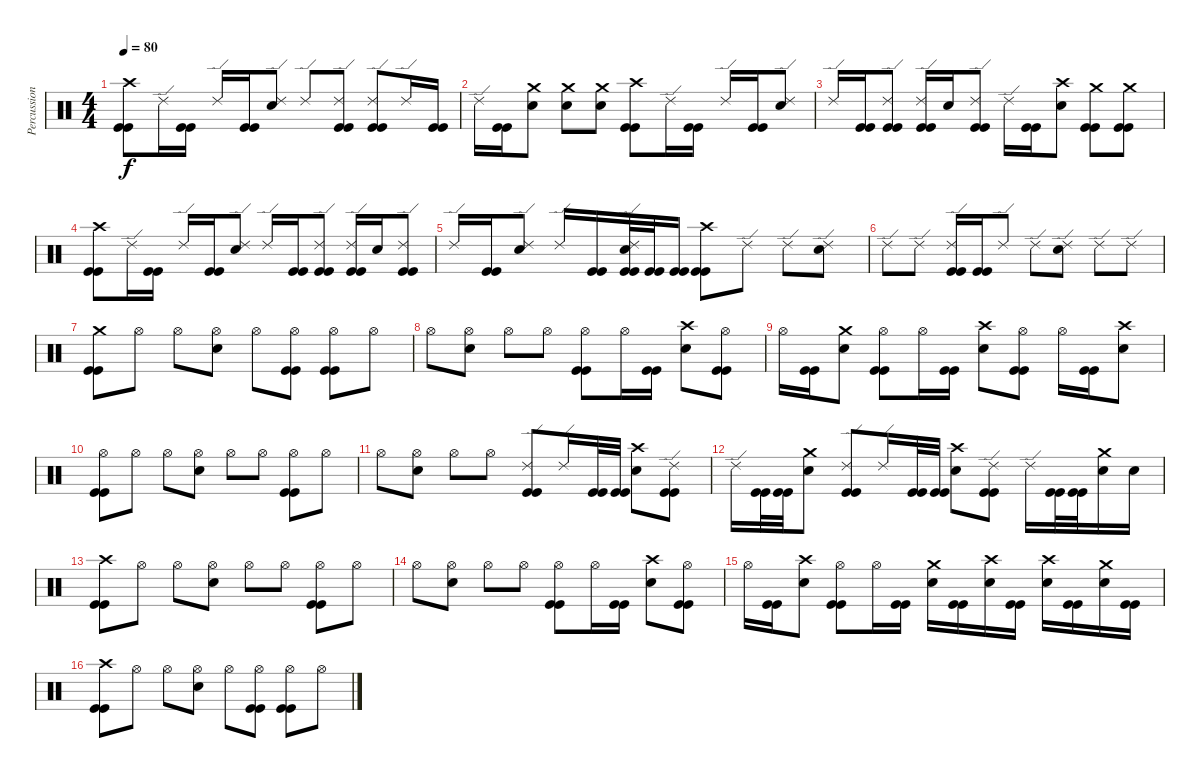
\track ("Percussions" "Percussion") {instrument percussion}
\staff {score}
\articulation defaults
\ts (4 4)
\tempo 80
\clef neutral
\ks c
("Kick (hit)" "Kick (hit)" "Crash high (hit)").8{dy f} "Ride (edge) 2".16 ("Kick (hit)" "Kick (hit)").16 "Ride (edge) 2".16 ("Kick (hit)" "Kick (hit)").16 ("Electric Snare (hit)" "Ride (edge) 2").8 "Ride (edge) 2".8 ("Kick (hit)" "Kick (hit)" "Ride (edge) 2").8 ("Kick (hit)" "Kick (hit)" "Ride (edge) 2").8 "Ride (edge) 2".16 ("Kick (hit)" "Kick (hit)").16 |
"Ride (edge) 2".16 ("Kick (hit)" "Kick (hit)").16 ("Electric Snare (hit)" "Crash medium (hit)").8 ("Electric Snare (hit)" "Crash medium (hit)").8 ("Electric Snare (hit)" "Crash medium (hit)").8 ("Kick (hit)" "Kick (hit)" "Crash high (hit)").8 "Ride (edge) 2".16 ("Kick (hit)" "Kick (hit)").16 "Ride (edge) 2".16 ("Kick (hit)" "Kick (hit)").16 ("Electric Snare (hit)" "Ride (edge) 2").8 |
"Ride (edge) 2".16 ("Kick (hit)" "Kick (hit)").16 ("Kick (hit)" "Kick (hit)" "Ride (edge) 2").8 ("Kick (hit)" "Kick (hit)" "Ride (edge) 2").16 "Electric Snare (hit)".16 ("Kick (hit)" "Kick (hit)" "Ride (edge) 2").8 "Ride (edge) 2".16 ("Kick (hit)" "Kick (hit)").16 ("Electric Snare (hit)" "Crash high (hit)").8 ("Kick (hit)" "Kick (hit)" "Crash medium (hit)").8 ("Kick (hit)" "Kick (hit)" "Crash medium (hit)").8 |
("Kick (hit)" "Kick (hit)" "Crash high (hit)").8 "Ride (edge) 2".16 ("Kick (hit)" "Kick (hit)").16 "Ride (edge) 2".16 ("Kick (hit)" "Kick (hit)").16 ("Electric Snare (hit)" "Ride (edge) 2").8 "Ride (edge) 2".16 ("Kick (hit)" "Kick (hit)").16 ("Kick (hit)" "Kick (hit)" "Ride (edge) 2").8 ("Kick (hit)" "Kick (hit)" "Ride (edge) 2").16 "Electric Snare (hit)".16 ("Kick (hit)" "Kick (hit)" "Ride (edge) 2").8 |
"Ride (edge) 2".16 ("Kick (hit)" "Kick (hit)").16 ("Electric Snare (hit)" "Ride (edge) 2").8 "Ride (edge) 2".16 ("Kick (hit)" "Kick (hit)").16 ("Kick (hit)" "Kick (hit)" "Electric Snare (hit)" "Ride (edge) 2").32 ("Kick (hit)" "Kick (hit)").32 ("Kick (hit)" "Kick (hit)").16 ("Kick (hit)" "Kick (hit)" "Crash high (hit)").8 "Ride (edge) 2".8 "Ride (edge) 2".8 ("Electric Snare (hit)" "Ride (edge) 2").8 |
"Ride (edge) 2".8 "Ride (edge) 2".8 ("Kick (hit)" "Kick (hit)" "Ride (edge) 2").16 ("Kick (hit)" "Kick (hit)").16 "Ride (edge) 2".8 "Ride (edge) 2".8 ("Electric Snare (hit)" "Ride (edge) 2").8 "Ride (edge) 2".8 "Ride (edge) 2".8 |
("Kick (hit)" "Kick (hit)" "Crash medium (hit)").8 "Hi-Hat (open)".8 "Hi-Hat (open)".8 ("Electric Snare (hit)" "Hi-Hat (open)").8 "Hi-Hat (open)".8 ("Kick (hit)" "Kick (hit)" "Hi-Hat (open)").8 ("Kick (hit)" "Kick (hit)" "Hi-Hat (open)").8 "Hi-Hat (open)".8 |
"Hi-Hat (open)".8 ("Electric Snare (hit)" "Hi-Hat (open)").8 "Hi-Hat (open)".8 "Hi-Hat (open)".8 ("Kick (hit)" "Kick (hit)" "Hi-Hat (open)").8 "Hi-Hat (open)".16 ("Kick (hit)" "Kick (hit)").16 ("Electric Snare (hit)" "Crash high (hit)").8 ("Kick (hit)" "Kick (hit)" "Hi-Hat (open)").8 |
"Hi-Hat (open)".16 ("Kick (hit)" "Kick (hit)").16 ("Electric Snare (hit)" "Crash medium (hit)").8 ("Kick (hit)" "Kick (hit)" "Hi-Hat (open)").8 "Hi-Hat (open)".16 ("Kick (hit)" "Kick (hit)").16 ("Electric Snare (hit)" "Crash high (hit)").8 ("Kick (hit)" "Kick (hit)" "Hi-Hat (open)").8 "Hi-Hat (open)".16 ("Kick (hit)" "Kick (hit)").16 ("Electric Snare (hit)" "Crash high (hit)").8 |
("Kick (hit)" "Kick (hit)" "Hi-Hat (open)").8 "Hi-Hat (open)".8 "Hi-Hat (open)".8 ("Electric Snare (hit)" "Hi-Hat (open)").8 "Hi-Hat (open)".8 "Hi-Hat (open)".8 ("Kick (hit)" "Kick (hit)" "Hi-Hat (open)").8 "Hi-Hat (open)".8 |
"Hi-Hat (open)".8 ("Electric Snare (hit)" "Hi-Hat (open)").8 "Hi-Hat (open)".8 "Hi-Hat (open)".8 ("Kick (hit)" "Kick (hit)" "Ride (edge) 2").8 "Ride (edge) 2".16 ("Kick (hit)" "Kick (hit)").32 ("Kick (hit)" "Kick (hit)").32 ("Electric Snare (hit)" "Crash high (hit)").8 ("Kick (hit)" "Kick (hit)" "Ride (edge) 2").8 |
"Ride (edge) 2".16 ("Kick (hit)" "Kick (hit)").32 ("Kick (hit)" "Kick (hit)").32 ("Electric Snare (hit)" "Crash medium (hit)").8 ("Kick (hit)" "Kick (hit)" "Ride (edge) 2").8 "Ride (edge) 2".16 ("Kick (hit)" "Kick (hit)").32 ("Kick (hit)" "Kick (hit)").32 ("Electric Snare (hit)" "Crash high (hit)").8 ("Kick (hit)" "Kick (hit)" "Ride (edge) 2").8 "Ride (edge) 2".16 ("Kick (hit)" "Kick (hit)").32 ("Kick (hit)" "Kick (hit)").32 ("Electric Snare (hit)" "Crash medium (hit)").16 "Electric Snare (hit)".16 |
("Kick (hit)" "Kick (hit)" "Crash high (hit)").8 "Hi-Hat (open)".8 "Hi-Hat (open)".8 ("Electric Snare (hit)" "Hi-Hat (open)").8 "Hi-Hat (open)".8 "Hi-Hat (open)".8 ("Kick (hit)" "Kick (hit)" "Hi-Hat (open)").8 "Hi-Hat (open)".8 |
"Hi-Hat (open)".8 ("Electric Snare (hit)" "Hi-Hat (open)").8 "Hi-Hat (open)".8 "Hi-Hat (open)".8 ("Kick (hit)" "Kick (hit)" "Hi-Hat (open)").8 "Hi-Hat (open)".16 ("Kick (hit)" "Kick (hit)").16 ("Electric Snare (hit)" "Crash high (hit)").8 ("Kick (hit)" "Kick (hit)" "Hi-Hat (open)").8 |
"Hi-Hat (open)".16 ("Kick (hit)" "Kick (hit)").16 ("Electric Snare (hit)" "Crash high (hit)").8 ("Kick (hit)" "Kick (hit)" "Hi-Hat (open)").8 "Hi-Hat (open)".16 ("Kick (hit)" "Kick (hit)").16 ("Electric Snare (hit)" "Crash medium (hit)").16 ("Kick (hit)" "Kick (hit)").16 ("Electric Snare (hit)" "Crash high (hit)").16 ("Kick (hit)" "Kick (hit)").16 ("Electric Snare (hit)" "Crash high (hit)").16 ("Kick (hit)" "Kick (hit)").16 ("Electric Snare (hit)" "Crash medium (hit)").16 ("Kick (hit)" "Kick (hit)").16 |
("Kick (hit)" "Kick (hit)" "Crash high (hit)").8 "Hi-Hat (open)".8 "Hi-Hat (open)".8 ("Electric Snare (hit)" "Hi-Hat (open)").8 "Hi-Hat (open)".8 ("Kick (hit)" "Kick (hit)" "Hi-Hat (open)").8 ("Kick (hit)" "Kick (hit)" "Hi-Hat (open)").8 "Hi-Hat (open)".8
